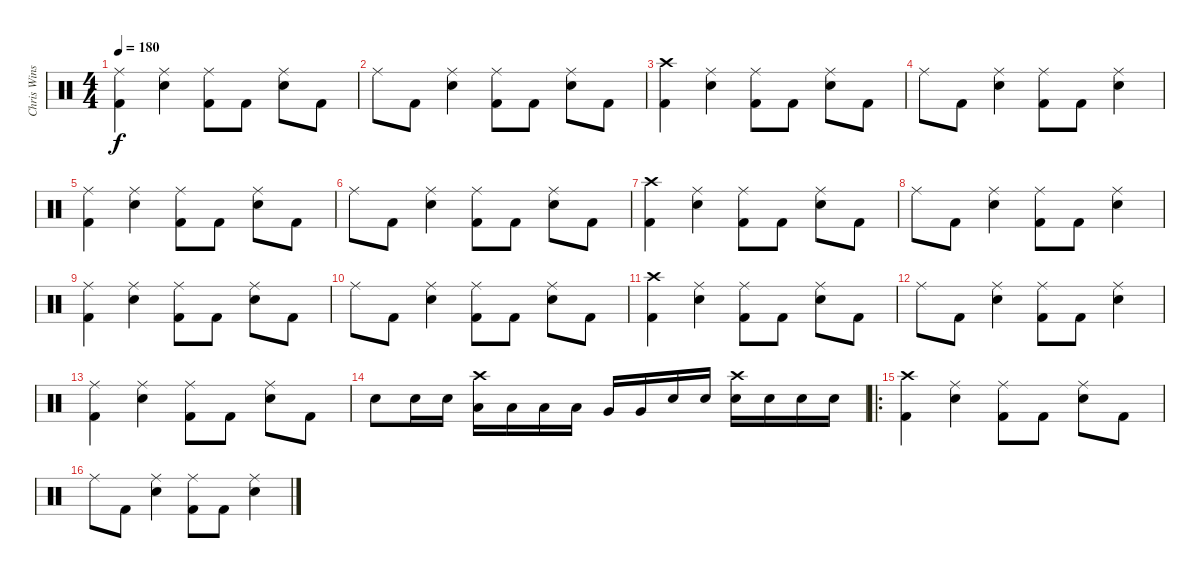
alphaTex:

\track ("Chris Winship (Drums)" "Chris Wins") {instrument percussion}
\staff {score}
\articulation defaults
\ts (4 4)
\tempo 180
\clef neutral
\ks c
("Ride (middle)" "Kick (hit) 2").4{dy f} ("Ride (middle)" "Electric Snare (hit)").4 ("Ride (middle)" "Kick (hit) 2").8 "Kick (hit) 2".8 ("Ride (middle)" "Electric Snare (hit)").8 "Kick (hit) 2".8 |
"Ride (middle)".8 "Kick (hit) 2".8 ("Ride (middle)" "Electric Snare (hit)").4 ("Ride (middle)" "Kick (hit) 2").8 "Kick (hit) 2".8 ("Ride (middle)" "Electric Snare (hit)").8 "Kick (hit) 2".8 |
("Crash high (hit)" "Kick (hit) 2").4 ("Ride (middle)" "Electric Snare (hit)").4 ("Ride (middle)" "Kick (hit) 2").8 "Kick (hit) 2".8 ("Ride (middle)" "Electric Snare (hit)").8 "Kick (hit) 2".8 |
"Ride (middle)".8 "Kick (hit) 2".8 ("Ride (middle)" "Electric Snare (hit)").4 ("Ride (middle)" "Kick (hit) 2").8 "Kick (hit) 2".8 ("Ride (middle)" "Electric Snare (hit)").4 |
("Ride (middle)" "Kick (hit) 2").4 ("Ride (middle)" "Electric Snare (hit)").4 ("Ride (middle)" "Kick (hit) 2").8 "Kick (hit) 2".8 ("Ride (middle)" "Electric Snare (hit)").8 "Kick (hit) 2".8 |
"Ride (middle)".8 "Kick (hit) 2".8 ("Ride (middle)" "Electric Snare (hit)").4 ("Ride (middle)" "Kick (hit) 2").8 "Kick (hit) 2".8 ("Ride (middle)" "Electric Snare (hit)").8 "Kick (hit) 2".8 |
("Crash high (hit)" "Kick (hit) 2").4 ("Ride (middle)" "Electric Snare (hit)").4 ("Ride (middle)" "Kick (hit) 2").8 "Kick (hit) 2".8 ("Ride (middle)" "Electric Snare (hit)").8 "Kick (hit) 2".8 |
"Ride (middle)".8 "Kick (hit) 2".8 ("Ride (middle)" "Electric Snare (hit)").4 ("Ride (middle)" "Kick (hit) 2").8 "Kick (hit) 2".8 ("Ride (middle)" "Electric Snare (hit)").4 |
("Ride (middle)" "Kick (hit) 2").4 ("Ride (middle)" "Electric Snare (hit)").4 ("Ride (middle)" "Kick (hit) 2").8 "Kick (hit) 2".8 ("Ride (middle)" "Electric Snare (hit)").8 "Kick (hit) 2".8 |
"Ride (middle)".8 "Kick (hit) 2".8 ("Ride (middle)" "Electric Snare (hit)").4 ("Ride (middle)" "Kick (hit) 2").8 "Kick (hit) 2".8 ("Ride (middle)" "Electric Snare (hit)").8 "Kick (hit) 2".8 |
("Crash high (hit)" "Kick (hit) 2").4 ("Ride (middle)" "Electric Snare (hit)").4 ("Ride (middle)" "Kick (hit) 2").8 "Kick (hit) 2".8 ("Ride (middle)" "Electric Snare (hit)").8 "Kick (hit) 2".8 |
"Ride (middle)".8 "Kick (hit) 2".8 ("Ride (middle)" "Electric Snare (hit)").4 ("Ride (middle)" "Kick (hit) 2").8 "Kick (hit) 2".8 ("Ride (middle)" "Electric Snare (hit)").4 |
("Ride (middle)" "Kick (hit) 2").4 ("Ride (middle)" "Electric Snare (hit)").4 ("Ride (middle)" "Kick (hit) 2").8 "Kick (hit) 2".8 ("Ride (middle)" "Electric Snare (hit)").8 "Kick (hit) 2".8 |
"Electric Snare (hit)".8 "Electric Snare (hit)".16 "Electric Snare (hit)".16 ("Crash high (hit)" "Low Tom (hit)").16 "Low Tom (hit)".16 "Low Tom (hit)".16 "Low Tom (hit)".16 "Very Low Tom (hit)".16 "Very Low Tom (hit)".16 "Electric Snare (hit)".16 "Electric Snare (hit)".16 ("Crash high (hit)" "Electric Snare (hit)").16 "Electric Snare (hit)".16 "Electric Snare (hit)".16 "Electric Snare (hit)".16 |
\ro
("Crash high (hit)" "Kick (hit) 2").4 ("Ride (middle)" "Electric Snare (hit)").4 ("Ride (middle)" "Kick (hit) 2").8 "Kick (hit) 2".8 ("Ride (middle)" "Electric Snare (hit)").8 "Kick (hit) 2".8 |
"Ride (middle)".8 "Kick (hit) 2".8 ("Ride (middle)" "Electric Snare (hit)").4 ("Ride (middle)" "Kick (hit) 2").8 "Kick (hit) 2".8 ("Ride (middle)" "Electric Snare (hit)").4
